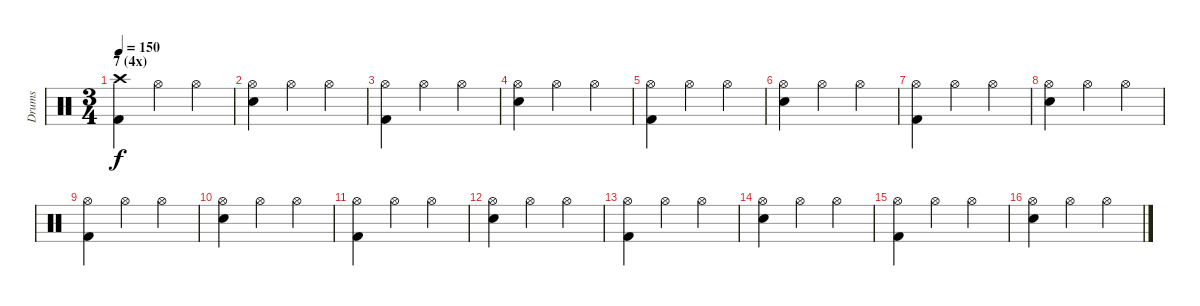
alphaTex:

\track ("Drums" "Drums") {instrument percussion}
\staff {score}
\articulation defaults
\ts (3 4)
\section ("" "7 (4x)")
\tempo 150
\clef neutral
\ks c
("Crash high (hit)" "Kick (hit) 2").4{dy f} "Hi-Hat (open)".4 "Hi-Hat (open)".4 |
("Hi-Hat (open)" "Snare (hit) 2").4 "Hi-Hat (open)".4 "Hi-Hat (open)".4 |
("Hi-Hat (open)" "Kick (hit) 2").4 "Hi-Hat (open)".4 "Hi-Hat (open)".4 |
("Hi-Hat (open)" "Snare (hit) 2").4 "Hi-Hat (open)".4 "Hi-Hat (open)".4 |
("Hi-Hat (open)" "Kick (hit) 2").4 "Hi-Hat (open)".4 "Hi-Hat (open)".4 |
("Hi-Hat (open)" "Snare (hit) 2").4 "Hi-Hat (open)".4 "Hi-Hat (open)".4 |
("Hi-Hat (open)" "Kick (hit) 2").4 "Hi-Hat (open)".4 "Hi-Hat (open)".4 |
("Hi-Hat (open)" "Snare (hit) 2").4 "Hi-Hat (open)".4 "Hi-Hat (open)".4 |
("Hi-Hat (open)" "Kick (hit) 2").4 "Hi-Hat (open)".4 "Hi-Hat (open)".4 |
("Hi-Hat (open)" "Snare (hit) 2").4 "Hi-Hat (open)".4 "Hi-Hat (open)".4 |
("Hi-Hat (open)" "Kick (hit) 2").4 "Hi-Hat (open)".4 "Hi-Hat (open)".4 |
("Hi-Hat (open)" "Snare (hit) 2").4 "Hi-Hat (open)".4 "Hi-Hat (open)".4 |
("Hi-Hat (open)" "Kick (hit) 2").4 "Hi-Hat (open)".4 "Hi-Hat (open)".4 |
("Hi-Hat (open)" "Snare (hit) 2").4 "Hi-Hat (open)".4 "Hi-Hat (open)".4 |
("Hi-Hat (open)" "Kick (hit) 2").4 "Hi-Hat (open)".4 "Hi-Hat (open)".4 |
("Hi-Hat (open)" "Snare (hit) 2").4 "Hi-Hat (open)".4 "Hi-Hat (open)".4
